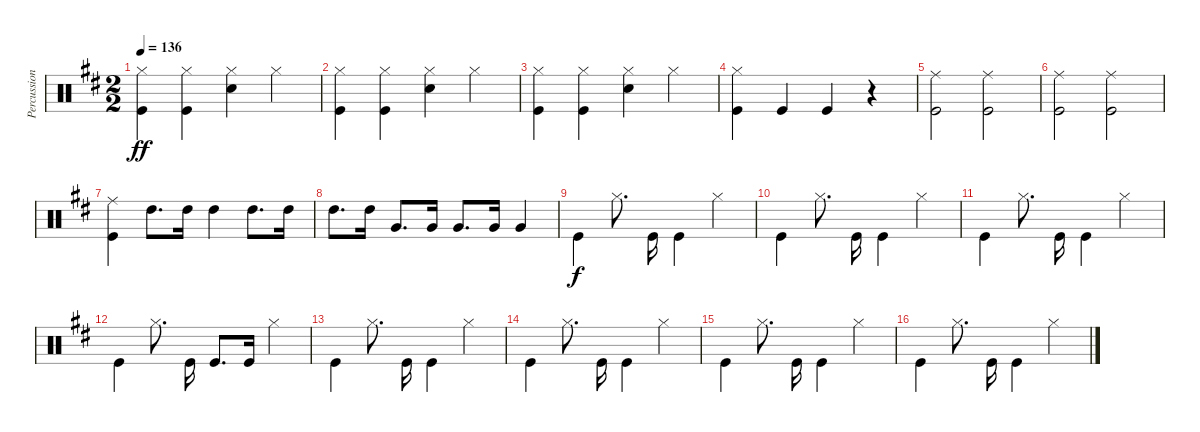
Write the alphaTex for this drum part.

\track ("Percussion" "Percussion") {instrument percussion}
\staff {score}
\articulation defaults
\ts (2 2)
\tempo 136
\clef neutral
\ks d
("Hi-Hat (closed)" "Kick (hit)").4{dy ff} ("Hi-Hat (closed)" "Kick (hit)").4 ("Hi-Hat (closed)" "Snare (hit) 2").4 "Hi-Hat (closed)".4 |
("Hi-Hat (closed)" "Kick (hit)").4 ("Hi-Hat (closed)" "Kick (hit)").4 ("Hi-Hat (closed)" "Snare (hit) 2").4 "Hi-Hat (closed)".4 |
("Hi-Hat (closed)" "Kick (hit)").4 ("Hi-Hat (closed)" "Kick (hit)").4 ("Hi-Hat (closed)" "Snare (hit) 2").4 "Hi-Hat (closed)".4 |
("Hi-Hat (closed)" "Kick (hit)").4 "Kick (hit)".4 "Kick (hit)".4 r.4 |
("Ride (middle)" "Kick (hit)").2 ("Ride (middle)" "Kick (hit)").2 |
("Ride (middle)" "Kick (hit)").2 ("Ride (middle)" "Kick (hit)").2 |
("Ride (middle)" "Kick (hit)").4 "High Tom (hit)".8{d} "High Tom (hit)".16 "High Tom (hit)".4 "High Tom (hit)".8{d} "High Tom (hit)".16 |
"High Tom (hit)".8{d} "High Tom (hit)".16{beam split} "Very Low Tom (hit)".8{d} "Very Low Tom (hit)".16 "Very Low Tom (hit)".8{d} "Very Low Tom (hit)".16 "Very Low Tom (hit)".4 |
"Kick (hit)".4{dy f beam Down} "Hi-Hat (closed)".8{d beam split} "Kick (hit)".16{beam Down} "Kick (hit)".4{beam Down} "Hi-Hat (closed)".4 |
"Kick (hit)".4{beam Down} "Hi-Hat (closed)".8{d beam split} "Kick (hit)".16{beam Down} "Kick (hit)".4{beam Down} "Hi-Hat (closed)".4 |
"Kick (hit)".4{beam Down} "Hi-Hat (closed)".8{d beam split} "Kick (hit)".16{beam Down} "Kick (hit)".4{beam Down} "Hi-Hat (closed)".4 |
"Kick (hit)".4{beam Down} "Hi-Hat (closed)".8{d beam split} "Kick (hit)".16{beam Down beam split} "Kick (hit)".8{d beam merge} "Kick (hit)".16 "Hi-Hat (closed)".4 |
"Kick (hit)".4{beam Down} "Hi-Hat (closed)".8{d beam split} "Kick (hit)".16{beam Down} "Kick (hit)".4{beam Down} "Hi-Hat (closed)".4 |
"Kick (hit)".4{beam Down} "Hi-Hat (closed)".8{d beam split} "Kick (hit)".16{beam Down} "Kick (hit)".4{beam Down} "Hi-Hat (closed)".4 |
"Kick (hit)".4{beam Down} "Hi-Hat (closed)".8{d beam split} "Kick (hit)".16{beam Down} "Kick (hit)".4{beam Down} "Hi-Hat (closed)".4 |
"Kick (hit)".4{beam Down} "Hi-Hat (closed)".8{d beam split} "Kick (hit)".16{beam Down} "Kick (hit)".4{beam Down} "Hi-Hat (closed)".4
